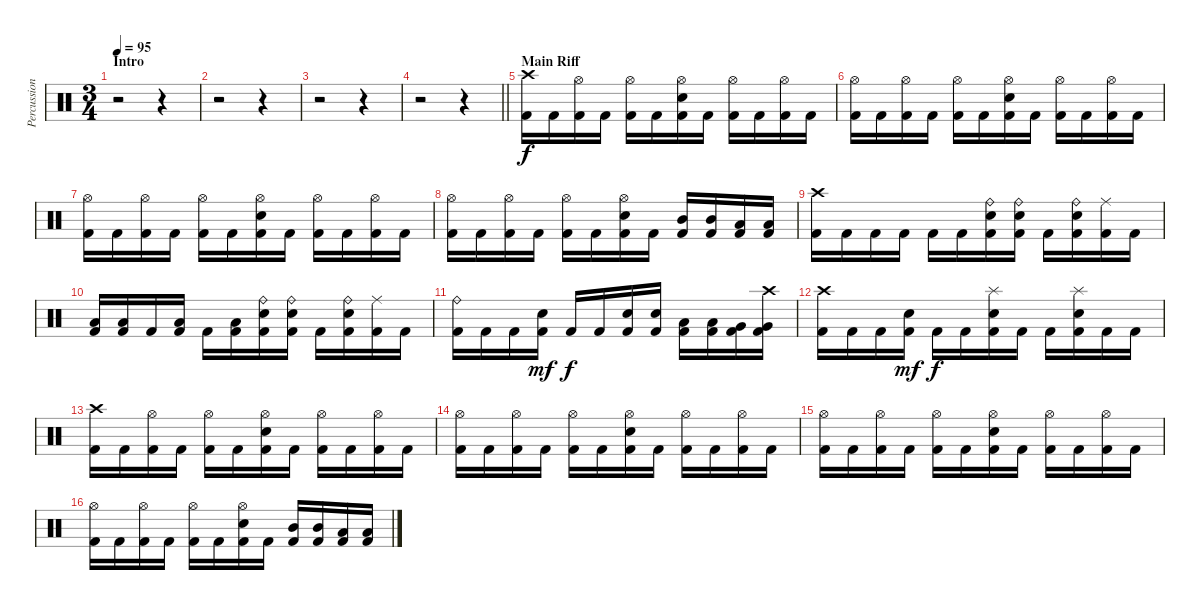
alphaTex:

\track ("Percussion" "Percussion") {instrument percussion}
\staff {score}
\articulation defaults
\ts (3 4)
\section ("" "Intro")
\tempo 95
\clef neutral
\ks c
r.2{dy f} r.4 |
r.2 r.4 |
r.2 r.4 |
\barLineRight lightlight
r.2 r.4 |
\section ("" "Main Riff ")
("Crash high (hit)" "Kick (hit) 2").16 "Kick (hit) 2".16 ("Hi-Hat (open)" "Kick (hit) 2").16 "Kick (hit) 2".16 ("Hi-Hat (open)" "Kick (hit) 2").16 "Kick (hit) 2".16 ("Hi-Hat (open)" "Electric Snare (hit)" "Kick (hit) 2").16 "Kick (hit) 2".16 ("Hi-Hat (open)" "Kick (hit) 2").16 "Kick (hit) 2".16 ("Hi-Hat (open)" "Kick (hit) 2").16 "Kick (hit) 2".16 |
("Hi-Hat (open)" "Kick (hit) 2").16 "Kick (hit) 2".16 ("Hi-Hat (open)" "Kick (hit) 2").16 "Kick (hit) 2".16 ("Hi-Hat (open)" "Kick (hit) 2").16 "Kick (hit) 2".16 ("Hi-Hat (open)" "Electric Snare (hit)" "Kick (hit) 2").16 "Kick (hit) 2".16 ("Hi-Hat (open)" "Kick (hit) 2").16 "Kick (hit) 2".16 ("Hi-Hat (open)" "Kick (hit) 2").16 "Kick (hit) 2".16 |
("Hi-Hat (open)" "Kick (hit) 2").16 "Kick (hit) 2".16 ("Hi-Hat (open)" "Kick (hit) 2").16 "Kick (hit) 2".16 ("Hi-Hat (open)" "Kick (hit) 2").16 "Kick (hit) 2".16 ("Hi-Hat (open)" "Electric Snare (hit)" "Kick (hit) 2").16 "Kick (hit) 2".16 ("Hi-Hat (open)" "Kick (hit) 2").16 "Kick (hit) 2".16 ("Hi-Hat (open)" "Kick (hit) 2").16 "Kick (hit) 2".16 |
("Hi-Hat (open)" "Kick (hit) 2").16 "Kick (hit) 2".16 ("Hi-Hat (open)" "Kick (hit) 2").16 "Kick (hit) 2".16 ("Hi-Hat (open)" "Kick (hit) 2").16 "Kick (hit) 2".16 ("Hi-Hat (open)" "Electric Snare (hit)" "Kick (hit) 2").16 "Kick (hit) 2".16 ("Mid Tom (hit)" "Kick (hit) 2").16 ("Mid Tom (hit)" "Kick (hit) 2").16 ("Low Tom (hit)" "Kick (hit) 2").16 ("Low Tom (hit)" "Kick (hit) 2").16 |
("Crash high (hit)" "Kick (hit) 2").16 "Kick (hit) 2".16 "Kick (hit) 2".16 "Kick (hit) 2".16 "Kick (hit) 2".16 "Kick (hit) 2".16 ("Ride (bell)" "Electric Snare (hit)" "Kick (hit) 2").16 ("Ride (bell)" "Electric Snare (hit)" "Kick (hit) 2").16 "Kick (hit) 2".16 ("Ride (bell)" "Electric Snare (hit)" "Kick (hit) 2").16 ("Ride (middle)" "Kick (hit) 2").16 "Kick (hit) 2".16 |
("Low Tom (hit)" "Kick (hit) 2").16 ("Low Tom (hit)" "Kick (hit) 2").16 "Kick (hit) 2".16 ("Low Tom (hit)" "Kick (hit) 2").16 "Kick (hit) 2".16 ("Low Tom (hit)" "Kick (hit) 2").16 ("Ride (bell)" "Electric Snare (hit)" "Kick (hit) 2").16 ("Ride (bell)" "Electric Snare (hit)" "Kick (hit) 2").16 "Kick (hit) 2".16 ("Ride (bell)" "Electric Snare (hit)" "Kick (hit) 2").16 ("Ride (middle)" "Kick (hit) 2").16 "Kick (hit) 2".16 |
("Ride (bell)" "Kick (hit) 2").16 "Kick (hit) 2".16 "Kick (hit) 2".16 ("Electric Snare (hit)" "Kick (hit) 2").16{dy mf} "Kick (hit) 2".16{dy f} "Kick (hit) 2".16 ("Electric Snare (hit)" "Kick (hit) 2").16 ("Electric Snare (hit)" "Kick (hit) 2").16 ("Low Tom (hit)" "Kick (hit) 2").16 ("Low Tom (hit)" "Kick (hit) 2").16 ("Very Low Tom (hit)" "Kick (hit) 2").16 ("Crash high (hit)" "Very Low Tom (hit)" "Kick (hit) 2").16 |
("Crash high (hit)" "Kick (hit) 2").16 "Kick (hit) 2".16 "Kick (hit) 2".16 ("Electric Snare (hit)" "Kick (hit) 2").16{dy mf} "Kick (hit) 2".16{dy f} "Kick (hit) 2".16 ("Splash (hit)" "Electric Snare (hit)" "Kick (hit) 2").16 "Kick (hit) 2".16 "Kick (hit) 2".16 ("Splash (hit)" "Electric Snare (hit)" "Kick (hit) 2").16 "Kick (hit) 2".16 "Kick (hit) 2".16 |
("Crash high (hit)" "Kick (hit) 2").16 "Kick (hit) 2".16 ("Hi-Hat (open)" "Kick (hit) 2").16 "Kick (hit) 2".16 ("Hi-Hat (open)" "Kick (hit) 2").16 "Kick (hit) 2".16 ("Hi-Hat (open)" "Electric Snare (hit)" "Kick (hit) 2").16 "Kick (hit) 2".16 ("Hi-Hat (open)" "Kick (hit) 2").16 "Kick (hit) 2".16 ("Hi-Hat (open)" "Kick (hit) 2").16 "Kick (hit) 2".16 |
("Hi-Hat (open)" "Kick (hit) 2").16 "Kick (hit) 2".16 ("Hi-Hat (open)" "Kick (hit) 2").16 "Kick (hit) 2".16 ("Hi-Hat (open)" "Kick (hit) 2").16 "Kick (hit) 2".16 ("Hi-Hat (open)" "Electric Snare (hit)" "Kick (hit) 2").16 "Kick (hit) 2".16 ("Hi-Hat (open)" "Kick (hit) 2").16 "Kick (hit) 2".16 ("Hi-Hat (open)" "Kick (hit) 2").16 "Kick (hit) 2".16 |
("Hi-Hat (open)" "Kick (hit) 2").16 "Kick (hit) 2".16 ("Hi-Hat (open)" "Kick (hit) 2").16 "Kick (hit) 2".16 ("Hi-Hat (open)" "Kick (hit) 2").16 "Kick (hit) 2".16 ("Hi-Hat (open)" "Electric Snare (hit)" "Kick (hit) 2").16 "Kick (hit) 2".16 ("Hi-Hat (open)" "Kick (hit) 2").16 "Kick (hit) 2".16 ("Hi-Hat (open)" "Kick (hit) 2").16 "Kick (hit) 2".16 |
("Hi-Hat (open)" "Kick (hit) 2").16 "Kick (hit) 2".16 ("Hi-Hat (open)" "Kick (hit) 2").16 "Kick (hit) 2".16 ("Hi-Hat (open)" "Kick (hit) 2").16 "Kick (hit) 2".16 ("Hi-Hat (open)" "Electric Snare (hit)" "Kick (hit) 2").16 "Kick (hit) 2".16 ("Mid Tom (hit)" "Kick (hit) 2").16 ("Mid Tom (hit)" "Kick (hit) 2").16 ("Low Tom (hit)" "Kick (hit) 2").16 ("Low Tom (hit)" "Kick (hit) 2").16
